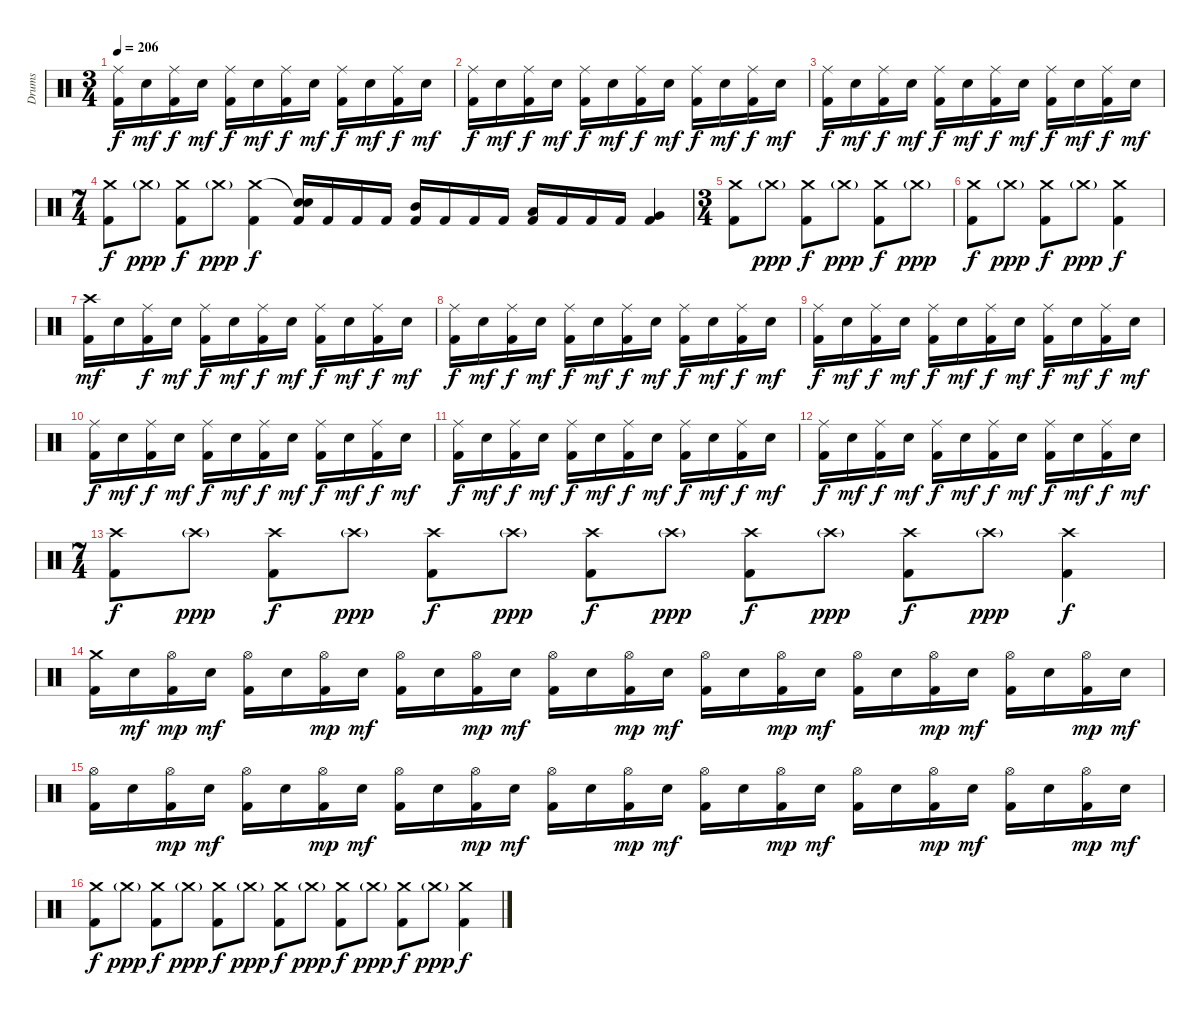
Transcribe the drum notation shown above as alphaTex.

\track ("Drums" "Drums") {instrument percussion}
\staff {score}
\articulation defaults
\ts (3 4)
\tempo 206
\clef neutral
\ks c
("Ride (middle)" "Kick (hit) 2").16{dy f} "Electric Snare (hit)".16{dy mf} ("Ride (middle)" "Kick (hit) 2").16{dy f} "Electric Snare (hit)".16{dy mf} ("Ride (middle)" "Kick (hit) 2").16{dy f} "Electric Snare (hit)".16{dy mf} ("Ride (middle)" "Kick (hit) 2").16{dy f} "Electric Snare (hit)".16{dy mf} ("Ride (middle)" "Kick (hit) 2").16{dy f} "Electric Snare (hit)".16{dy mf} ("Ride (middle)" "Kick (hit) 2").16{dy f} "Electric Snare (hit)".16{dy mf} |
("Ride (middle)" "Kick (hit) 2").16{dy f} "Electric Snare (hit)".16{dy mf} ("Ride (middle)" "Kick (hit) 2").16{dy f} "Electric Snare (hit)".16{dy mf} ("Ride (middle)" "Kick (hit) 2").16{dy f} "Electric Snare (hit)".16{dy mf} ("Ride (middle)" "Kick (hit) 2").16{dy f} "Electric Snare (hit)".16{dy mf} ("Ride (middle)" "Kick (hit) 2").16{dy f} "Electric Snare (hit)".16{dy mf} ("Ride (middle)" "Kick (hit) 2").16{dy f} "Electric Snare (hit)".16{dy mf} |
("Ride (middle)" "Kick (hit) 2").16{dy f} "Electric Snare (hit)".16{dy mf} ("Ride (middle)" "Kick (hit) 2").16{dy f} "Electric Snare (hit)".16{dy mf} ("Ride (middle)" "Kick (hit) 2").16{dy f} "Electric Snare (hit)".16{dy mf} ("Ride (middle)" "Kick (hit) 2").16{dy f} "Electric Snare (hit)".16{dy mf} ("Ride (middle)" "Kick (hit) 2").16{dy f} "Electric Snare (hit)".16{dy mf} ("Ride (middle)" "Kick (hit) 2").16{dy f} "Electric Snare (hit)".16{dy mf} |
\ts (7 4)
("Crash medium (hit)" "Kick (hit) 2").8{dy f} "Crash medium (hit)"{g}.8{dy ppp} ("Crash medium (hit)" "Kick (hit) 2").8{dy f} "Crash medium (hit)"{g}.8{dy ppp} ("Crash medium (hit)" "Kick (hit) 2").4{dy f} ("Snare (hit)"{t} "Electric Snare (hit)" "Kick (hit) 2").16 "Kick (hit) 2".16 "Kick (hit) 2".16 "Kick (hit) 2".16 ("Mid Tom (hit)" "Kick (hit) 2").16 "Kick (hit) 2".16 "Kick (hit) 2".16 "Kick (hit) 2".16 ("Low Tom (hit)" "Kick (hit) 2").16 "Kick (hit) 2".16 "Kick (hit) 2".16 "Kick (hit) 2".16 ("Very Low Tom (hit)" "Kick (hit) 2").4 |
\ts (3 4)
("Crash medium (hit)" "Kick (hit) 2").8 "Crash medium (hit)"{g}.8{dy ppp} ("Crash medium (hit)" "Kick (hit) 2").8{dy f} "Crash medium (hit)"{g}.8{dy ppp} ("Crash medium (hit)" "Kick (hit) 2").8{dy f} "Crash medium (hit)"{g}.8{dy ppp} |
("Crash medium (hit)" "Kick (hit) 2").8{dy f} "Crash medium (hit)"{g}.8{dy ppp} ("Crash medium (hit)" "Kick (hit) 2").8{dy f} "Crash medium (hit)"{g}.8{dy ppp} ("Crash medium (hit)" "Kick (hit) 2").4{dy f} |
("Crash high (hit)" "Kick (hit) 2").16{dy mf} "Electric Snare (hit)".16 ("Ride (middle)" "Kick (hit) 2").16{dy f} "Electric Snare (hit)".16{dy mf} ("Ride (middle)" "Kick (hit) 2").16{dy f} "Electric Snare (hit)".16{dy mf} ("Ride (middle)" "Kick (hit) 2").16{dy f} "Electric Snare (hit)".16{dy mf} ("Ride (middle)" "Kick (hit) 2").16{dy f} "Electric Snare (hit)".16{dy mf} ("Ride (middle)" "Kick (hit) 2").16{dy f} "Electric Snare (hit)".16{dy mf} |
("Ride (middle)" "Kick (hit) 2").16{dy f} "Electric Snare (hit)".16{dy mf} ("Ride (middle)" "Kick (hit) 2").16{dy f} "Electric Snare (hit)".16{dy mf} ("Ride (middle)" "Kick (hit) 2").16{dy f} "Electric Snare (hit)".16{dy mf} ("Ride (middle)" "Kick (hit) 2").16{dy f} "Electric Snare (hit)".16{dy mf} ("Ride (middle)" "Kick (hit) 2").16{dy f} "Electric Snare (hit)".16{dy mf} ("Ride (middle)" "Kick (hit) 2").16{dy f} "Electric Snare (hit)".16{dy mf} |
("Ride (middle)" "Kick (hit) 2").16{dy f} "Electric Snare (hit)".16{dy mf} ("Ride (middle)" "Kick (hit) 2").16{dy f} "Electric Snare (hit)".16{dy mf} ("Ride (middle)" "Kick (hit) 2").16{dy f} "Electric Snare (hit)".16{dy mf} ("Ride (middle)" "Kick (hit) 2").16{dy f} "Electric Snare (hit)".16{dy mf} ("Ride (middle)" "Kick (hit) 2").16{dy f} "Electric Snare (hit)".16{dy mf} ("Ride (middle)" "Kick (hit) 2").16{dy f} "Electric Snare (hit)".16{dy mf} |
("Ride (middle)" "Kick (hit) 2").16{dy f} "Electric Snare (hit)".16{dy mf} ("Ride (middle)" "Kick (hit) 2").16{dy f} "Electric Snare (hit)".16{dy mf} ("Ride (middle)" "Kick (hit) 2").16{dy f} "Electric Snare (hit)".16{dy mf} ("Ride (middle)" "Kick (hit) 2").16{dy f} "Electric Snare (hit)".16{dy mf} ("Ride (middle)" "Kick (hit) 2").16{dy f} "Electric Snare (hit)".16{dy mf} ("Ride (middle)" "Kick (hit) 2").16{dy f} "Electric Snare (hit)".16{dy mf} |
("Ride (middle)" "Kick (hit) 2").16{dy f} "Electric Snare (hit)".16{dy mf} ("Ride (middle)" "Kick (hit) 2").16{dy f} "Electric Snare (hit)".16{dy mf} ("Ride (middle)" "Kick (hit) 2").16{dy f} "Electric Snare (hit)".16{dy mf} ("Ride (middle)" "Kick (hit) 2").16{dy f} "Electric Snare (hit)".16{dy mf} ("Ride (middle)" "Kick (hit) 2").16{dy f} "Electric Snare (hit)".16{dy mf} ("Ride (middle)" "Kick (hit) 2").16{dy f} "Electric Snare (hit)".16{dy mf} |
("Ride (middle)" "Kick (hit) 2").16{dy f} "Electric Snare (hit)".16{dy mf} ("Ride (middle)" "Kick (hit) 2").16{dy f} "Electric Snare (hit)".16{dy mf} ("Ride (middle)" "Kick (hit) 2").16{dy f} "Electric Snare (hit)".16{dy mf} ("Ride (middle)" "Kick (hit) 2").16{dy f} "Electric Snare (hit)".16{dy mf} ("Ride (middle)" "Kick (hit) 2").16{dy f} "Electric Snare (hit)".16{dy mf} ("Ride (middle)" "Kick (hit) 2").16{dy f} "Electric Snare (hit)".16{dy mf} |
\ts (7 4)
("Crash high (hit)" "Kick (hit) 2").8{dy f} "Crash high (hit)"{g}.8{dy ppp} ("Crash high (hit)" "Kick (hit) 2").8{dy f} "Crash high (hit)"{g}.8{dy ppp} ("Crash high (hit)" "Kick (hit) 2").8{dy f} "Crash high (hit)"{g}.8{dy ppp} ("Crash high (hit)" "Kick (hit) 2").8{dy f} "Crash high (hit)"{g}.8{dy ppp} ("Crash high (hit)" "Kick (hit) 2").8{dy f} "Crash high (hit)"{g}.8{dy ppp} ("Crash high (hit)" "Kick (hit) 2").8{dy f} "Crash high (hit)"{g}.8{dy ppp} ("Crash high (hit)" "Kick (hit) 2").4{dy f} |
("Crash medium (hit)" "Kick (hit) 2").16 "Electric Snare (hit)".16{dy mf} ("Hi-Hat (open)" "Kick (hit) 2").16{dy mp} "Electric Snare (hit)".16{dy mf} ("Hi-Hat (open)" "Kick (hit) 2").16 "Electric Snare (hit)".16 ("Hi-Hat (open)" "Kick (hit) 2").16{dy mp} "Electric Snare (hit)".16{dy mf} ("Hi-Hat (open)" "Kick (hit) 2").16 "Electric Snare (hit)".16 ("Hi-Hat (open)" "Kick (hit) 2").16{dy mp} "Electric Snare (hit)".16{dy mf} ("Hi-Hat (open)" "Kick (hit) 2").16 "Electric Snare (hit)".16 ("Hi-Hat (open)" "Kick (hit) 2").16{dy mp} "Electric Snare (hit)".16{dy mf} ("Hi-Hat (open)" "Kick (hit) 2").16 "Electric Snare (hit)".16 ("Hi-Hat (open)" "Kick (hit) 2").16{dy mp} "Electric Snare (hit)".16{dy mf} ("Hi-Hat (open)" "Kick (hit) 2").16 "Electric Snare (hit)".16 ("Hi-Hat (open)" "Kick (hit) 2").16{dy mp} "Electric Snare (hit)".16{dy mf} ("Hi-Hat (open)" "Kick (hit) 2").16 "Electric Snare (hit)".16 ("Hi-Hat (open)" "Kick (hit) 2").16{dy mp} "Electric Snare (hit)".16{dy mf} |
("Hi-Hat (open)" "Kick (hit) 2").16 "Electric Snare (hit)".16 ("Hi-Hat (open)" "Kick (hit) 2").16{dy mp} "Electric Snare (hit)".16{dy mf} ("Hi-Hat (open)" "Kick (hit) 2").16 "Electric Snare (hit)".16 ("Hi-Hat (open)" "Kick (hit) 2").16{dy mp} "Electric Snare (hit)".16{dy mf} ("Hi-Hat (open)" "Kick (hit) 2").16 "Electric Snare (hit)".16 ("Hi-Hat (open)" "Kick (hit) 2").16{dy mp} "Electric Snare (hit)".16{dy mf} ("Hi-Hat (open)" "Kick (hit) 2").16 "Electric Snare (hit)".16 ("Hi-Hat (open)" "Kick (hit) 2").16{dy mp} "Electric Snare (hit)".16{dy mf} ("Hi-Hat (open)" "Kick (hit) 2").16 "Electric Snare (hit)".16 ("Hi-Hat (open)" "Kick (hit) 2").16{dy mp} "Electric Snare (hit)".16{dy mf} ("Hi-Hat (open)" "Kick (hit) 2").16 "Electric Snare (hit)".16 ("Hi-Hat (open)" "Kick (hit) 2").16{dy mp} "Electric Snare (hit)".16{dy mf} ("Hi-Hat (open)" "Kick (hit) 2").16 "Electric Snare (hit)".16 ("Hi-Hat (open)" "Kick (hit) 2").16{dy mp} "Electric Snare (hit)".16{dy mf} |
("Crash medium (hit)" "Kick (hit) 2").8{dy f} "Crash medium (hit)"{g}.8{dy ppp} ("Crash medium (hit)" "Kick (hit) 2").8{dy f} "Crash medium (hit)"{g}.8{dy ppp} ("Crash medium (hit)" "Kick (hit) 2").8{dy f} "Crash medium (hit)"{g}.8{dy ppp} ("Crash medium (hit)" "Kick (hit) 2").8{dy f} "Crash medium (hit)"{g}.8{dy ppp} ("Crash medium (hit)" "Kick (hit) 2").8{dy f} "Crash medium (hit)"{g}.8{dy ppp} ("Crash medium (hit)" "Kick (hit) 2").8{dy f} "Crash medium (hit)"{g}.8{dy ppp} ("Crash medium (hit)" "Kick (hit) 2").4{dy f}
